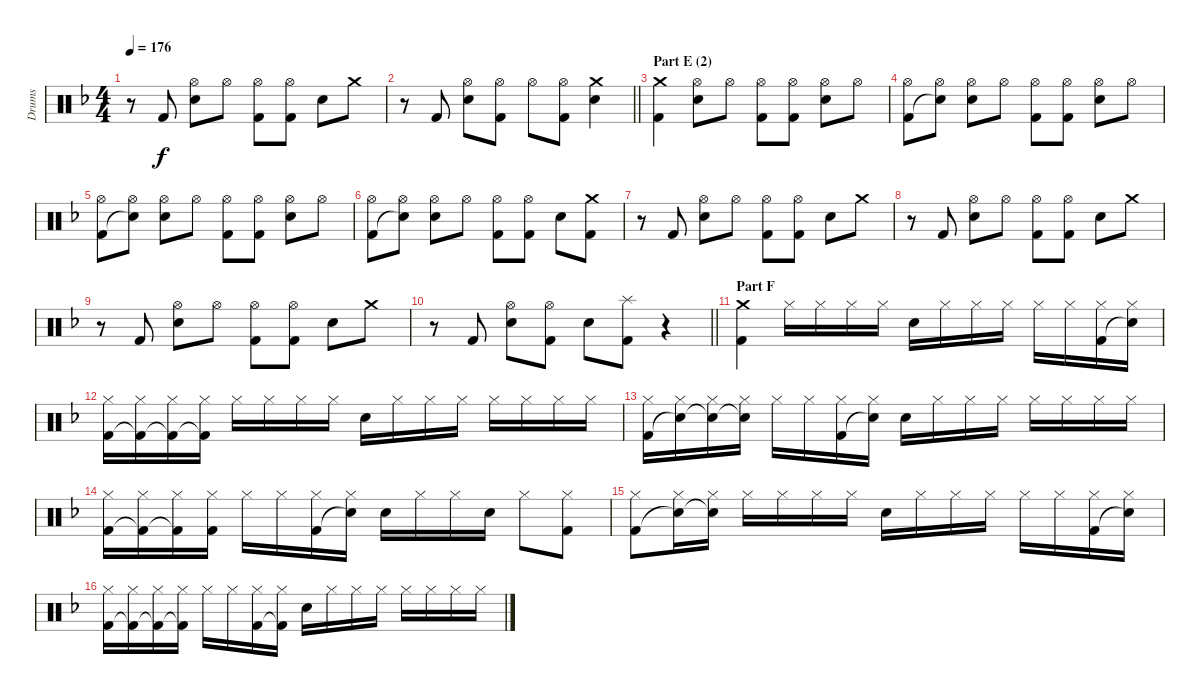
\track ("Drums" "Drums") {instrument percussion}
\staff {score}
\articulation defaults
\ts (4 4)
\tempo 176
\clef neutral
\ks f
r.8{dy f} "Kick (hit) 2".8 ("Hi-Hat (open)" "Electric Snare (hit)").8 "Hi-Hat (open)".8 ("Hi-Hat (open)" "Kick (hit) 2").8 ("Hi-Hat (open)" "Kick (hit) 2").8 "Electric Snare (hit)".8 "Crash medium (hit)".8 |
\barLineRight lightlight
r.8 "Kick (hit) 2".8 ("Hi-Hat (open)" "Electric Snare (hit)").8 ("Hi-Hat (open)" "Kick (hit) 2").8 "Hi-Hat (open)".8 ("Hi-Hat (open)" "Kick (hit) 2").8 ("Crash medium (hit)" "Electric Snare (hit)").4 |
\section ("" "Part E (2)")
("Crash medium (hit)" "Kick (hit) 2").4 ("Hi-Hat (open)" "Electric Snare (hit)").8 "Hi-Hat (open)".8 ("Hi-Hat (open)" "Kick (hit) 2").8 ("Hi-Hat (open)" "Kick (hit) 2").8 ("Hi-Hat (open)" "Electric Snare (hit)").8 "Hi-Hat (open)".8 |
("Hi-Hat (open)" "Kick (hit) 2").8 ("Hi-Hat (open)" "Snare (hit)"{t}).8 ("Hi-Hat (open)" "Electric Snare (hit)").8 "Hi-Hat (open)".8 ("Hi-Hat (open)" "Kick (hit) 2").8 ("Hi-Hat (open)" "Kick (hit) 2").8 ("Hi-Hat (open)" "Electric Snare (hit)").8 "Hi-Hat (open)".8 |
("Hi-Hat (open)" "Kick (hit) 2").8 ("Hi-Hat (open)" "Snare (hit)"{t}).8 ("Hi-Hat (open)" "Electric Snare (hit)").8 "Hi-Hat (open)".8 ("Hi-Hat (open)" "Kick (hit) 2").8 ("Hi-Hat (open)" "Kick (hit) 2").8 ("Hi-Hat (open)" "Electric Snare (hit)").8 "Hi-Hat (open)".8 |
("Hi-Hat (open)" "Kick (hit) 2").8 ("Hi-Hat (open)" "Snare (hit)"{t}).8 ("Hi-Hat (open)" "Electric Snare (hit)").8 "Hi-Hat (open)".8 ("Hi-Hat (open)" "Kick (hit) 2").8 ("Hi-Hat (open)" "Kick (hit) 2").8 "Electric Snare (hit)".8 ("Crash medium (hit)" "Kick (hit) 2").8 |
r.8 "Kick (hit) 2".8 ("Hi-Hat (open)" "Electric Snare (hit)").8 "Hi-Hat (open)".8 ("Hi-Hat (open)" "Kick (hit) 2").8 ("Hi-Hat (open)" "Kick (hit) 2").8 "Electric Snare (hit)".8 "Crash medium (hit)".8 |
r.8 "Kick (hit) 2".8 ("Hi-Hat (open)" "Electric Snare (hit)").8 "Hi-Hat (open)".8 ("Hi-Hat (open)" "Kick (hit) 2").8 ("Hi-Hat (open)" "Kick (hit) 2").8 "Electric Snare (hit)".8 "Crash medium (hit)".8 |
r.8 "Kick (hit) 2".8 ("Hi-Hat (open)" "Electric Snare (hit)").8 "Hi-Hat (open)".8 ("Hi-Hat (open)" "Kick (hit) 2").8 ("Hi-Hat (open)" "Kick (hit) 2").8 "Electric Snare (hit)".8 "Crash medium (hit)".8 |
\barLineRight lightlight
r.8 "Kick (hit) 2".8 ("Hi-Hat (open)" "Electric Snare (hit)").8 ("Hi-Hat (open)" "Kick (hit) 2").8 "Electric Snare (hit)".8 ("Splash (hit)" "Kick (hit) 2").8 r.4 |
\section ("" "Part F")
("Crash medium (hit)" "Kick (hit) 2").4 "Hi-Hat (closed)".16 "Hi-Hat (closed)".16 "Hi-Hat (closed)".16 "Hi-Hat (closed)".16 "Electric Snare (hit)".16 "Hi-Hat (closed)".16 "Hi-Hat (closed)".16 "Hi-Hat (closed)".16 "Hi-Hat (closed)".16 "Hi-Hat (closed)".16 ("Hi-Hat (closed)" "Kick (hit) 2").16 ("Hi-Hat (closed)" "Snare (hit)"{t}).16 |
("Hi-Hat (closed)" "Kick (hit) 2").16 ("Hi-Hat (closed)" "Kick (hit) 2"{t}).16 ("Hi-Hat (closed)" "Kick (hit) 2"{t}).16 ("Hi-Hat (closed)" "Kick (hit) 2"{t}).16 "Hi-Hat (closed)".16 "Hi-Hat (closed)".16 "Hi-Hat (closed)".16 "Hi-Hat (closed)".16 "Electric Snare (hit)".16 "Hi-Hat (closed)".16 "Hi-Hat (closed)".16 "Hi-Hat (closed)".16 "Hi-Hat (closed)".16 "Hi-Hat (closed)".16 "Hi-Hat (closed)".16 "Hi-Hat (closed)".16 |
("Hi-Hat (closed)" "Kick (hit) 2").16 ("Hi-Hat (closed)" "Snare (hit)"{t}).16 ("Hi-Hat (closed)" "Snare (hit)"{t}).16 ("Hi-Hat (closed)" "Snare (hit)"{t}).16 "Hi-Hat (closed)".16 "Hi-Hat (closed)".16 ("Hi-Hat (closed)" "Kick (hit) 2").16 ("Hi-Hat (closed)" "Snare (hit)"{t}).16 "Electric Snare (hit)".16 "Hi-Hat (closed)".16 "Hi-Hat (closed)".16 "Hi-Hat (closed)".16 "Hi-Hat (closed)".16 "Hi-Hat (closed)".16 "Hi-Hat (closed)".16 "Hi-Hat (closed)".16 |
("Hi-Hat (closed)" "Kick (hit) 2").16 ("Hi-Hat (closed)" "Kick (hit) 2"{t}).16 ("Hi-Hat (closed)" "Kick (hit) 2"{t}).16 ("Hi-Hat (closed)" "Kick (hit) 2").16 "Hi-Hat (closed)".16 "Hi-Hat (closed)".16 ("Hi-Hat (closed)" "Kick (hit) 2").16 ("Hi-Hat (closed)" "Snare (hit)"{t}).16 "Electric Snare (hit)".16 "Hi-Hat (closed)".16 "Hi-Hat (closed)".16 "Electric Snare (hit)".16 "Hi-Hat (closed)".8 ("Hi-Hat (closed)" "Kick (hit) 2").8 |
("Hi-Hat (closed)" "Kick (hit) 2").8 ("Hi-Hat (closed)" "Snare (hit)"{t}).16 ("Hi-Hat (closed)" "Snare (hit)"{t}).16 "Hi-Hat (closed)".16 "Hi-Hat (closed)".16 "Hi-Hat (closed)".16 "Hi-Hat (closed)".16 "Electric Snare (hit)".16 "Hi-Hat (closed)".16 "Hi-Hat (closed)".16 "Hi-Hat (closed)".16 "Hi-Hat (closed)".16 "Hi-Hat (closed)".16 ("Hi-Hat (closed)" "Kick (hit) 2").16 ("Hi-Hat (closed)" "Snare (hit)"{t}).16 |
("Hi-Hat (closed)" "Kick (hit) 2").16 ("Hi-Hat (closed)" "Kick (hit) 2"{t}).16 ("Hi-Hat (closed)" "Kick (hit) 2"{t}).16 ("Hi-Hat (closed)" "Kick (hit) 2"{t}).16 "Hi-Hat (closed)".16 "Hi-Hat (closed)".16 ("Hi-Hat (closed)" "Kick (hit) 2").16 ("Hi-Hat (closed)" "Kick (hit) 2"{t}).16 "Electric Snare (hit)".16 "Hi-Hat (closed)".16 "Hi-Hat (closed)".16 "Hi-Hat (closed)".16 "Hi-Hat (closed)".16 "Hi-Hat (closed)".16 "Hi-Hat (closed)".16 "Hi-Hat (closed)".16
